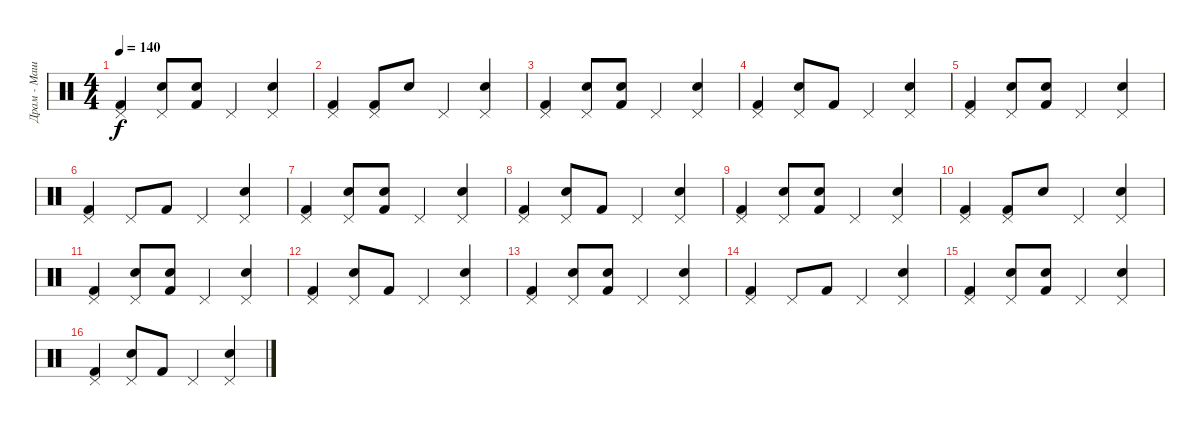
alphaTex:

\track ("Драм - Машина" "Драм - Маш") {instrument percussion}
\staff {score}
\articulation defaults
\ts (4 4)
\tempo 140
\clef neutral
\ks c
("Kick (hit) 2" "Pedal Hi-Hat (hit)").4{dy f} ("Electric Snare (hit)" "Pedal Hi-Hat (hit)").8 ("Kick (hit) 2" "Electric Snare (hit)").8 "Pedal Hi-Hat (hit)".4 ("Electric Snare (hit)" "Pedal Hi-Hat (hit)").4 |
("Kick (hit) 2" "Pedal Hi-Hat (hit)").4 ("Pedal Hi-Hat (hit)" "Kick (hit) 2").8 "Electric Snare (hit)".8 "Pedal Hi-Hat (hit)".4 ("Electric Snare (hit)" "Pedal Hi-Hat (hit)").4 |
("Kick (hit) 2" "Pedal Hi-Hat (hit)").4 ("Electric Snare (hit)" "Pedal Hi-Hat (hit)").8 ("Kick (hit) 2" "Electric Snare (hit)").8 "Pedal Hi-Hat (hit)".4 ("Electric Snare (hit)" "Pedal Hi-Hat (hit)").4 |
("Kick (hit) 2" "Pedal Hi-Hat (hit)").4 ("Pedal Hi-Hat (hit)" "Electric Snare (hit)").8 "Kick (hit) 2".8 "Pedal Hi-Hat (hit)".4 ("Electric Snare (hit)" "Pedal Hi-Hat (hit)").4 |
("Kick (hit) 2" "Pedal Hi-Hat (hit)").4 ("Electric Snare (hit)" "Pedal Hi-Hat (hit)").8 ("Kick (hit) 2" "Electric Snare (hit)").8 "Pedal Hi-Hat (hit)".4 ("Electric Snare (hit)" "Pedal Hi-Hat (hit)").4 |
("Kick (hit) 2" "Pedal Hi-Hat (hit)").4 "Pedal Hi-Hat (hit)".8 "Kick (hit) 2".8 "Pedal Hi-Hat (hit)".4 ("Electric Snare (hit)" "Pedal Hi-Hat (hit)").4 |
("Kick (hit) 2" "Pedal Hi-Hat (hit)").4 ("Electric Snare (hit)" "Pedal Hi-Hat (hit)").8 ("Kick (hit) 2" "Electric Snare (hit)").8 "Pedal Hi-Hat (hit)".4 ("Electric Snare (hit)" "Pedal Hi-Hat (hit)").4 |
("Kick (hit) 2" "Pedal Hi-Hat (hit)").4 ("Pedal Hi-Hat (hit)" "Electric Snare (hit)").8 "Kick (hit) 2".8 "Pedal Hi-Hat (hit)".4 ("Electric Snare (hit)" "Pedal Hi-Hat (hit)").4 |
("Kick (hit) 2" "Pedal Hi-Hat (hit)").4 ("Electric Snare (hit)" "Pedal Hi-Hat (hit)").8 ("Kick (hit) 2" "Electric Snare (hit)").8 "Pedal Hi-Hat (hit)".4 ("Electric Snare (hit)" "Pedal Hi-Hat (hit)").4 |
("Kick (hit) 2" "Pedal Hi-Hat (hit)").4 ("Pedal Hi-Hat (hit)" "Kick (hit) 2").8 "Electric Snare (hit)".8 "Pedal Hi-Hat (hit)".4 ("Electric Snare (hit)" "Pedal Hi-Hat (hit)").4 |
("Kick (hit) 2" "Pedal Hi-Hat (hit)").4 ("Electric Snare (hit)" "Pedal Hi-Hat (hit)").8 ("Kick (hit) 2" "Electric Snare (hit)").8 "Pedal Hi-Hat (hit)".4 ("Electric Snare (hit)" "Pedal Hi-Hat (hit)").4 |
("Kick (hit) 2" "Pedal Hi-Hat (hit)").4 ("Pedal Hi-Hat (hit)" "Electric Snare (hit)").8 "Kick (hit) 2".8 "Pedal Hi-Hat (hit)".4 ("Electric Snare (hit)" "Pedal Hi-Hat (hit)").4 |
("Kick (hit) 2" "Pedal Hi-Hat (hit)").4 ("Electric Snare (hit)" "Pedal Hi-Hat (hit)").8 ("Kick (hit) 2" "Electric Snare (hit)").8 "Pedal Hi-Hat (hit)".4 ("Electric Snare (hit)" "Pedal Hi-Hat (hit)").4 |
("Kick (hit) 2" "Pedal Hi-Hat (hit)").4 "Pedal Hi-Hat (hit)".8 "Kick (hit) 2".8 "Pedal Hi-Hat (hit)".4 ("Electric Snare (hit)" "Pedal Hi-Hat (hit)").4 |
("Kick (hit) 2" "Pedal Hi-Hat (hit)").4 ("Electric Snare (hit)" "Pedal Hi-Hat (hit)").8 ("Kick (hit) 2" "Electric Snare (hit)").8 "Pedal Hi-Hat (hit)".4 ("Electric Snare (hit)" "Pedal Hi-Hat (hit)").4 |
("Kick (hit) 2" "Pedal Hi-Hat (hit)").4 ("Pedal Hi-Hat (hit)" "Electric Snare (hit)").8 "Kick (hit) 2".8 "Pedal Hi-Hat (hit)".4 ("Electric Snare (hit)" "Pedal Hi-Hat (hit)").4
